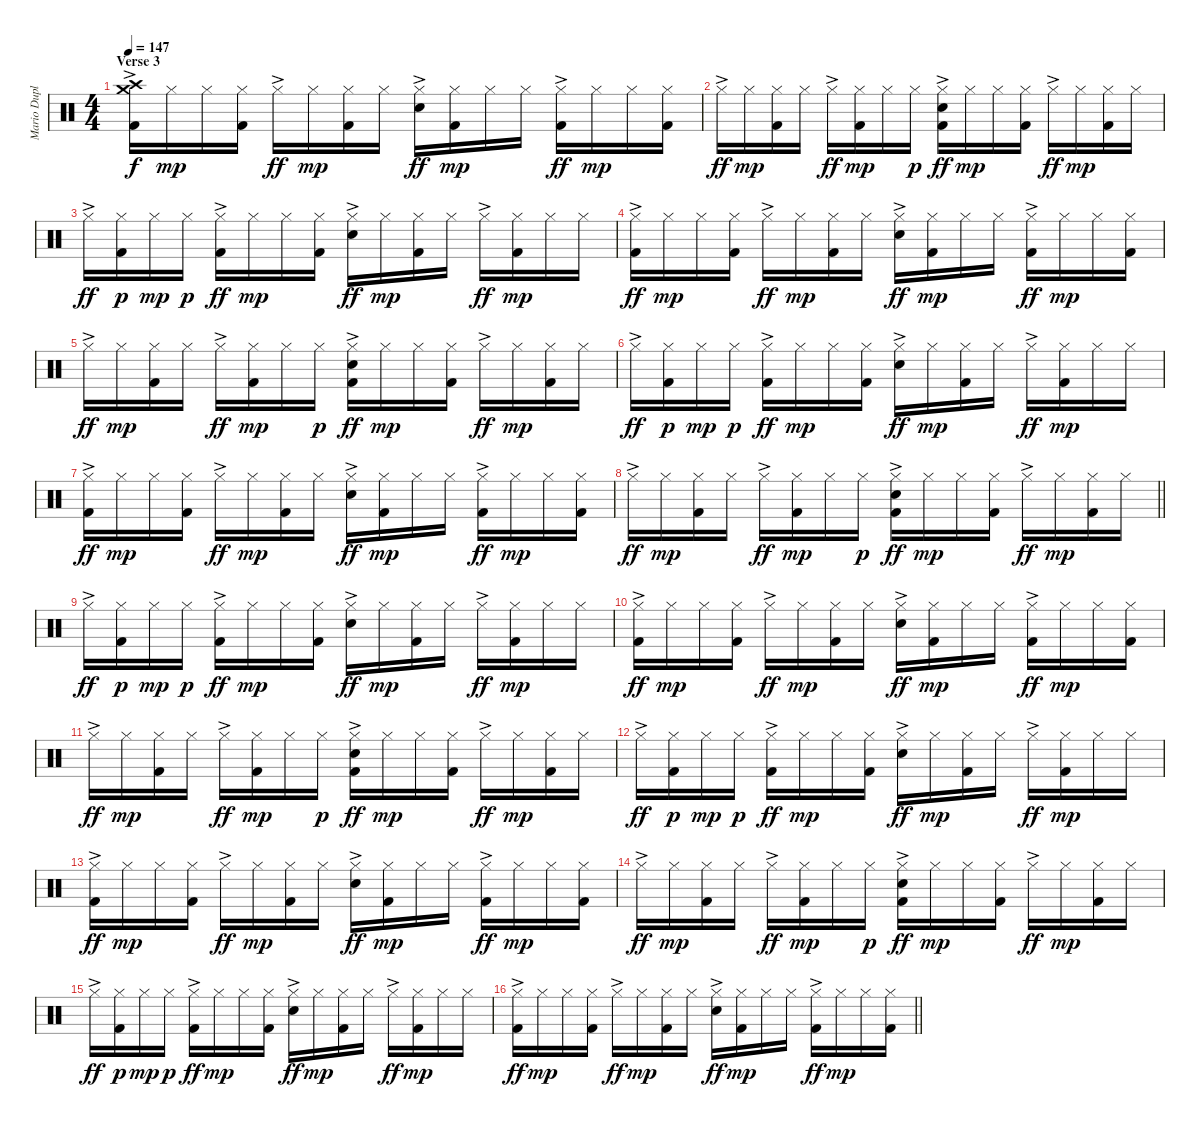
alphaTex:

\track ("Mario Duplantier - DRUMS" "Mario Dupl") {instrument percussion}
\staff {score}
\articulation defaults
\ts (4 4)
\section ("" "Verse 3")
\tempo 147
\clef neutral
\ks c
("Crash medium (hit)" "Crash high (hit)"{ac} "Kick (hit) 2").16{dy f} "Hi-Hat (closed)".16{dy mp} "Hi-Hat (closed)".16 ("Hi-Hat (closed)" "Kick (hit) 2").16 "Hi-Hat (closed)"{ac}.16{dy ff} "Hi-Hat (closed)".16{dy mp} ("Hi-Hat (closed)" "Kick (hit) 2").16 "Hi-Hat (closed)".16 ("Hi-Hat (closed)"{ac} "Electric Snare (hit)").16{dy ff} ("Hi-Hat (closed)" "Kick (hit) 2").16{dy mp} "Hi-Hat (closed)".16 "Hi-Hat (closed)".16 ("Hi-Hat (closed)"{ac} "Kick (hit) 2").16{dy ff} "Hi-Hat (closed)".16{dy mp} "Hi-Hat (closed)".16 ("Hi-Hat (closed)" "Kick (hit) 2").16 |
"Hi-Hat (closed)"{ac}.16{dy ff} "Hi-Hat (closed)".16{dy mp} ("Hi-Hat (closed)" "Kick (hit) 2").16 "Hi-Hat (closed)".16 "Hi-Hat (closed)"{ac}.16{dy ff} ("Hi-Hat (closed)" "Kick (hit) 2").16{dy mp} "Hi-Hat (closed)".16 "Hi-Hat (closed)".16{dy p} ("Hi-Hat (closed)"{ac} "Electric Snare (hit)" "Kick (hit) 2").16{dy ff} "Hi-Hat (closed)".16{dy mp} "Hi-Hat (closed)".16 ("Hi-Hat (closed)" "Kick (hit) 2").16 "Hi-Hat (closed)"{ac}.16{dy ff} "Hi-Hat (closed)".16{dy mp} ("Hi-Hat (closed)" "Kick (hit) 2").16 "Hi-Hat (closed)".16 |
"Hi-Hat (closed)"{ac}.16{dy ff} ("Hi-Hat (closed)" "Kick (hit) 2").16{dy p} "Hi-Hat (closed)".16{dy mp} "Hi-Hat (closed)".16{dy p} ("Hi-Hat (closed)"{ac} "Kick (hit) 2").16{dy ff} "Hi-Hat (closed)".16{dy mp} "Hi-Hat (closed)".16 ("Hi-Hat (closed)" "Kick (hit) 2").16 ("Hi-Hat (closed)"{ac} "Electric Snare (hit)").16{dy ff} "Hi-Hat (closed)".16{dy mp} ("Hi-Hat (closed)" "Kick (hit) 2").16 "Hi-Hat (closed)".16 "Hi-Hat (closed)"{ac}.16{dy ff} ("Hi-Hat (closed)" "Kick (hit) 2").16{dy mp} "Hi-Hat (closed)".16 "Hi-Hat (closed)".16 |
("Hi-Hat (closed)"{ac} "Kick (hit) 2").16{dy ff} "Hi-Hat (closed)".16{dy mp} "Hi-Hat (closed)".16 ("Hi-Hat (closed)" "Kick (hit) 2").16 "Hi-Hat (closed)"{ac}.16{dy ff} "Hi-Hat (closed)".16{dy mp} ("Hi-Hat (closed)" "Kick (hit) 2").16 "Hi-Hat (closed)".16 ("Hi-Hat (closed)"{ac} "Electric Snare (hit)").16{dy ff} ("Hi-Hat (closed)" "Kick (hit) 2").16{dy mp} "Hi-Hat (closed)".16 "Hi-Hat (closed)".16 ("Hi-Hat (closed)"{ac} "Kick (hit) 2").16{dy ff} "Hi-Hat (closed)".16{dy mp} "Hi-Hat (closed)".16 ("Hi-Hat (closed)" "Kick (hit) 2").16 |
"Hi-Hat (closed)"{ac}.16{dy ff} "Hi-Hat (closed)".16{dy mp} ("Hi-Hat (closed)" "Kick (hit) 2").16 "Hi-Hat (closed)".16 "Hi-Hat (closed)"{ac}.16{dy ff} ("Hi-Hat (closed)" "Kick (hit) 2").16{dy mp} "Hi-Hat (closed)".16 "Hi-Hat (closed)".16{dy p} ("Hi-Hat (closed)"{ac} "Electric Snare (hit)" "Kick (hit) 2").16{dy ff} "Hi-Hat (closed)".16{dy mp} "Hi-Hat (closed)".16 ("Hi-Hat (closed)" "Kick (hit) 2").16 "Hi-Hat (closed)"{ac}.16{dy ff} "Hi-Hat (closed)".16{dy mp} ("Hi-Hat (closed)" "Kick (hit) 2").16 "Hi-Hat (closed)".16 |
"Hi-Hat (closed)"{ac}.16{dy ff} ("Hi-Hat (closed)" "Kick (hit) 2").16{dy p} "Hi-Hat (closed)".16{dy mp} "Hi-Hat (closed)".16{dy p} ("Hi-Hat (closed)"{ac} "Kick (hit) 2").16{dy ff} "Hi-Hat (closed)".16{dy mp} "Hi-Hat (closed)".16 ("Hi-Hat (closed)" "Kick (hit) 2").16 ("Hi-Hat (closed)"{ac} "Electric Snare (hit)").16{dy ff} "Hi-Hat (closed)".16{dy mp} ("Hi-Hat (closed)" "Kick (hit) 2").16 "Hi-Hat (closed)".16 "Hi-Hat (closed)"{ac}.16{dy ff} ("Hi-Hat (closed)" "Kick (hit) 2").16{dy mp} "Hi-Hat (closed)".16 "Hi-Hat (closed)".16 |
("Hi-Hat (closed)"{ac} "Kick (hit) 2").16{dy ff} "Hi-Hat (closed)".16{dy mp} "Hi-Hat (closed)".16 ("Hi-Hat (closed)" "Kick (hit) 2").16 "Hi-Hat (closed)"{ac}.16{dy ff} "Hi-Hat (closed)".16{dy mp} ("Hi-Hat (closed)" "Kick (hit) 2").16 "Hi-Hat (closed)".16 ("Hi-Hat (closed)"{ac} "Electric Snare (hit)").16{dy ff} ("Hi-Hat (closed)" "Kick (hit) 2").16{dy mp} "Hi-Hat (closed)".16 "Hi-Hat (closed)".16 ("Hi-Hat (closed)"{ac} "Kick (hit) 2").16{dy ff} "Hi-Hat (closed)".16{dy mp} "Hi-Hat (closed)".16 ("Hi-Hat (closed)" "Kick (hit) 2").16 |
\barLineRight lightlight "Hi-Hat (closed)"{ac}.16{dy ff} "Hi-Hat (closed)".16{dy mp}
("Hi-Hat (closed)" "Kick (hit) 2").16 "Hi-Hat (closed)".16 "Hi-Hat (closed)"{ac}.16{dy ff} ("Hi-Hat (closed)" "Kick (hit) 2").16{dy mp} "Hi-Hat (closed)".16 "Hi-Hat (closed)".16{dy p} ("Hi-Hat (closed)"{ac} "Electric Snare (hit)" "Kick (hit) 2").16{dy ff} "Hi-Hat (closed)".16{dy mp} "Hi-Hat (closed)".16 ("Hi-Hat (closed)" "Kick (hit) 2").16 "Hi-Hat (closed)"{ac}.16{dy ff} "Hi-Hat (closed)".16{dy mp} ("Hi-Hat (closed)" "Kick (hit) 2").16 "Hi-Hat (closed)".16 |
\section ("" "")
"Hi-Hat (closed)"{ac}.16{dy ff} ("Hi-Hat (closed)" "Kick (hit) 2").16{dy p} "Hi-Hat (closed)".16{dy mp} "Hi-Hat (closed)".16{dy p} ("Hi-Hat (closed)"{ac} "Kick (hit) 2").16{dy ff} "Hi-Hat (closed)".16{dy mp} "Hi-Hat (closed)".16 ("Hi-Hat (closed)" "Kick (hit) 2").16 ("Hi-Hat (closed)"{ac} "Electric Snare (hit)").16{dy ff} "Hi-Hat (closed)".16{dy mp} ("Hi-Hat (closed)" "Kick (hit) 2").16 "Hi-Hat (closed)".16 "Hi-Hat (closed)"{ac}.16{dy ff} ("Hi-Hat (closed)" "Kick (hit) 2").16{dy mp} "Hi-Hat (closed)".16 "Hi-Hat (closed)".16 |
("Hi-Hat (closed)"{ac} "Kick (hit) 2").16{dy ff} "Hi-Hat (closed)".16{dy mp} "Hi-Hat (closed)".16 ("Hi-Hat (closed)" "Kick (hit) 2").16 "Hi-Hat (closed)"{ac}.16{dy ff} "Hi-Hat (closed)".16{dy mp} ("Hi-Hat (closed)" "Kick (hit) 2").16 "Hi-Hat (closed)".16 ("Hi-Hat (closed)"{ac} "Electric Snare (hit)").16{dy ff} ("Hi-Hat (closed)" "Kick (hit) 2").16{dy mp} "Hi-Hat (closed)".16 "Hi-Hat (closed)".16 ("Hi-Hat (closed)"{ac} "Kick (hit) 2").16{dy ff} "Hi-Hat (closed)".16{dy mp} "Hi-Hat (closed)".16 ("Hi-Hat (closed)" "Kick (hit) 2").16 |
"Hi-Hat (closed)"{ac}.16{dy ff} "Hi-Hat (closed)".16{dy mp} ("Hi-Hat (closed)" "Kick (hit) 2").16 "Hi-Hat (closed)".16 "Hi-Hat (closed)"{ac}.16{dy ff} ("Hi-Hat (closed)" "Kick (hit) 2").16{dy mp} "Hi-Hat (closed)".16 "Hi-Hat (closed)".16{dy p} ("Hi-Hat (closed)"{ac} "Electric Snare (hit)" "Kick (hit) 2").16{dy ff} "Hi-Hat (closed)".16{dy mp} "Hi-Hat (closed)".16 ("Hi-Hat (closed)" "Kick (hit) 2").16 "Hi-Hat (closed)"{ac}.16{dy ff} "Hi-Hat (closed)".16{dy mp} ("Hi-Hat (closed)" "Kick (hit) 2").16 "Hi-Hat (closed)".16 |
"Hi-Hat (closed)"{ac}.16{dy ff} ("Hi-Hat (closed)" "Kick (hit) 2").16{dy p} "Hi-Hat (closed)".16{dy mp} "Hi-Hat (closed)".16{dy p} ("Hi-Hat (closed)"{ac} "Kick (hit) 2").16{dy ff} "Hi-Hat (closed)".16{dy mp} "Hi-Hat (closed)".16 ("Hi-Hat (closed)" "Kick (hit) 2").16 ("Hi-Hat (closed)"{ac} "Electric Snare (hit)").16{dy ff} "Hi-Hat (closed)".16{dy mp} ("Hi-Hat (closed)" "Kick (hit) 2").16 "Hi-Hat (closed)".16 "Hi-Hat (closed)"{ac}.16{dy ff} ("Hi-Hat (closed)" "Kick (hit) 2").16{dy mp} "Hi-Hat (closed)".16 "Hi-Hat (closed)".16 |
("Hi-Hat (closed)"{ac} "Kick (hit) 2").16{dy ff} "Hi-Hat (closed)".16{dy mp} "Hi-Hat (closed)".16 ("Hi-Hat (closed)" "Kick (hit) 2").16 "Hi-Hat (closed)"{ac}.16{dy ff} "Hi-Hat (closed)".16{dy mp} ("Hi-Hat (closed)" "Kick (hit) 2").16 "Hi-Hat (closed)".16 ("Hi-Hat (closed)"{ac} "Electric Snare (hit)").16{dy ff} ("Hi-Hat (closed)" "Kick (hit) 2").16{dy mp} "Hi-Hat (closed)".16 "Hi-Hat (closed)".16 ("Hi-Hat (closed)"{ac} "Kick (hit) 2").16{dy ff} "Hi-Hat (closed)".16{dy mp} "Hi-Hat (closed)".16 ("Hi-Hat (closed)" "Kick (hit) 2").16 |
"Hi-Hat (closed)"{ac}.16{dy ff} "Hi-Hat (closed)".16{dy mp} ("Hi-Hat (closed)" "Kick (hit) 2").16 "Hi-Hat (closed)".16 "Hi-Hat (closed)"{ac}.16{dy ff} ("Hi-Hat (closed)" "Kick (hit) 2").16{dy mp} "Hi-Hat (closed)".16 "Hi-Hat (closed)".16{dy p} ("Hi-Hat (closed)"{ac} "Electric Snare (hit)" "Kick (hit) 2").16{dy ff} "Hi-Hat (closed)".16{dy mp} "Hi-Hat (closed)".16 ("Hi-Hat (closed)" "Kick (hit) 2").16 "Hi-Hat (closed)"{ac}.16{dy ff} "Hi-Hat (closed)".16{dy mp} ("Hi-Hat (closed)" "Kick (hit) 2").16 "Hi-Hat (closed)".16 |
"Hi-Hat (closed)"{ac}.16{dy ff} ("Hi-Hat (closed)" "Kick (hit) 2").16{dy p} "Hi-Hat (closed)".16{dy mp} "Hi-Hat (closed)".16{dy p} ("Hi-Hat (closed)"{ac} "Kick (hit) 2").16{dy ff} "Hi-Hat (closed)".16{dy mp} "Hi-Hat (closed)".16 ("Hi-Hat (closed)" "Kick (hit) 2").16 ("Hi-Hat (closed)"{ac} "Electric Snare (hit)").16{dy ff} "Hi-Hat (closed)".16{dy mp} ("Hi-Hat (closed)" "Kick (hit) 2").16 "Hi-Hat (closed)".16 "Hi-Hat (closed)"{ac}.16{dy ff} ("Hi-Hat (closed)" "Kick (hit) 2").16{dy mp} "Hi-Hat (closed)".16 "Hi-Hat (closed)".16 |
\barLineRight lightlight
("Hi-Hat (closed)"{ac} "Kick (hit) 2").16{dy ff} "Hi-Hat (closed)".16{dy mp} "Hi-Hat (closed)".16 ("Hi-Hat (closed)" "Kick (hit) 2").16 "Hi-Hat (closed)"{ac}.16{dy ff} "Hi-Hat (closed)".16{dy mp} ("Hi-Hat (closed)" "Kick (hit) 2").16 "Hi-Hat (closed)".16 ("Hi-Hat (closed)"{ac} "Electric Snare (hit)").16{dy ff} ("Hi-Hat (closed)" "Kick (hit) 2").16{dy mp} "Hi-Hat (closed)".16 "Hi-Hat (closed)".16 ("Hi-Hat (closed)"{ac} "Kick (hit) 2").16{dy ff} "Hi-Hat (closed)".16{dy mp} "Hi-Hat (closed)".16 ("Hi-Hat (closed)" "Kick (hit) 2").16
